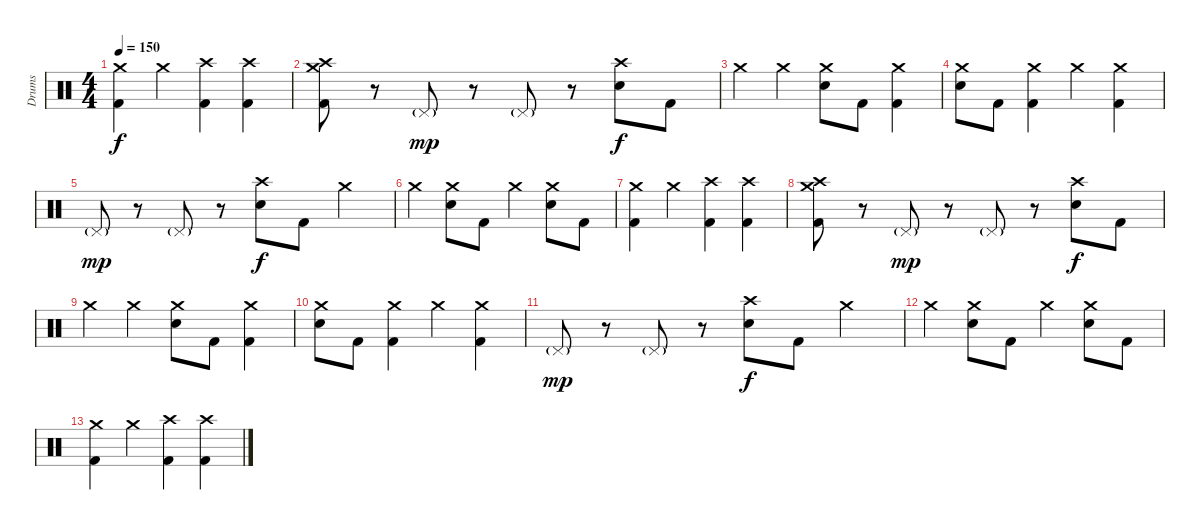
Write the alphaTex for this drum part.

\track ("Drums" "Drums") {instrument percussion}
\staff {score}
\articulation defaults
\ts (4 4)
\tempo 150
\clef neutral
\ks c
("Crash medium (hit)" "Kick (hit) 2").4{dy f} "Crash medium (hit)".4 ("Crash high (hit)" "Kick (hit) 2").4 ("Crash high (hit)" "Kick (hit) 2").4 |
("Crash medium (hit)" "Crash high (hit)" "Kick (hit) 2").8{volume 4} r.8 "Pedal Hi-Hat (hit)"{g}.8{dy mp} r.8 "Pedal Hi-Hat (hit)"{g}.8 r.8 ("Crash high (hit)" "Electric Snare (hit)").8{dy f} "Kick (hit) 2".8 |
"Crash medium (hit)".4 "Crash medium (hit)".4 ("Crash medium (hit)" "Electric Snare (hit)").8 "Kick (hit) 2".8 ("Crash medium (hit)" "Kick (hit) 2").4 |
("Crash medium (hit)" "Electric Snare (hit)").8 "Kick (hit) 2".8 ("Crash medium (hit)" "Kick (hit) 2").4 "Crash medium (hit)".4 ("Crash medium (hit)" "Kick (hit) 2").4 |
"Pedal Hi-Hat (hit)"{g}.8{dy mp} r.8 "Pedal Hi-Hat (hit)"{g}.8 r.8 ("Crash high (hit)" "Electric Snare (hit)").8{dy f} "Kick (hit) 2".8 "Crash medium (hit)".4 |
"Crash medium (hit)".4 ("Crash medium (hit)" "Electric Snare (hit)").8 "Kick (hit) 2".8 "Crash medium (hit)".4 ("Crash medium (hit)" "Electric Snare (hit)").8 "Kick (hit) 2".8 |
("Crash medium (hit)" "Kick (hit) 2").4 "Crash medium (hit)".4 ("Crash high (hit)" "Kick (hit) 2").4 ("Crash high (hit)" "Kick (hit) 2").4 |
("Crash medium (hit)" "Crash high (hit)" "Kick (hit) 2").8{volume 0} r.8 "Pedal Hi-Hat (hit)"{g}.8{dy mp} r.8 "Pedal Hi-Hat (hit)"{g}.8 r.8 ("Crash high (hit)" "Electric Snare (hit)").8{dy f} "Kick (hit) 2".8 |
"Crash medium (hit)".4 "Crash medium (hit)".4 ("Crash medium (hit)" "Electric Snare (hit)").8 "Kick (hit) 2".8 ("Crash medium (hit)" "Kick (hit) 2").4 |
("Crash medium (hit)" "Electric Snare (hit)").8 "Kick (hit) 2".8 ("Crash medium (hit)" "Kick (hit) 2").4 "Crash medium (hit)".4 ("Crash medium (hit)" "Kick (hit) 2").4 |
"Pedal Hi-Hat (hit)"{g}.8{dy mp} r.8 "Pedal Hi-Hat (hit)"{g}.8 r.8 ("Crash high (hit)" "Electric Snare (hit)").8{dy f} "Kick (hit) 2".8 "Crash medium (hit)".4 |
"Crash medium (hit)".4 ("Crash medium (hit)" "Electric Snare (hit)").8 "Kick (hit) 2".8 "Crash medium (hit)".4 ("Crash medium (hit)" "Electric Snare (hit)").8 "Kick (hit) 2".8 |
("Crash medium (hit)" "Kick (hit) 2").4 "Crash medium (hit)".4 ("Crash high (hit)" "Kick (hit) 2").4 ("Crash high (hit)" "Kick (hit) 2").4
